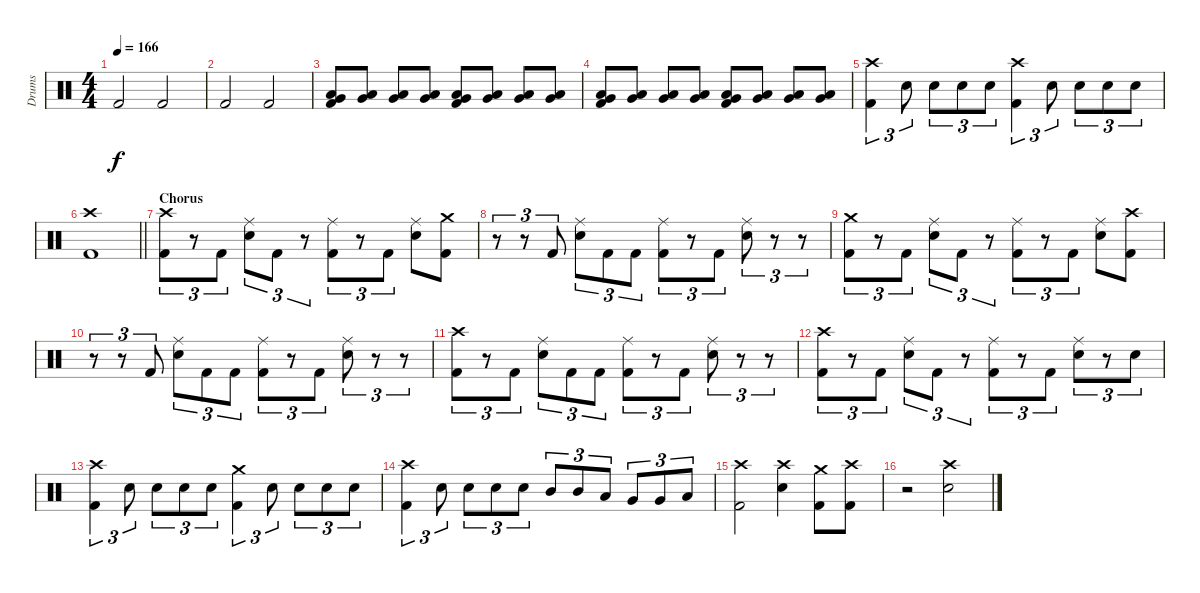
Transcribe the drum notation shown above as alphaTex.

\track ("Drums" "Drums") {instrument percussion}
\staff {score}
\articulation defaults
\ts (4 4)
\tempo 166
\clef neutral
\ks c "Kick (hit) 2".2{dy f} "Kick (hit) 2".2
|
"Kick (hit) 2".2 "Kick (hit) 2".2 |
("Low Floor Tom (hit)" "Very Low Tom (hit)" "Kick (hit) 2").8 ("Low Floor Tom (hit)" "Very Low Tom (hit)").8 ("Low Floor Tom (hit)" "Very Low Tom (hit)").8 ("Low Floor Tom (hit)" "Very Low Tom (hit)").8 ("Low Floor Tom (hit)" "Very Low Tom (hit)" "Kick (hit) 2").8 ("Low Floor Tom (hit)" "Very Low Tom (hit)").8 ("Low Floor Tom (hit)" "Very Low Tom (hit)").8 ("Low Floor Tom (hit)" "Very Low Tom (hit)").8 |
("Low Floor Tom (hit)" "Very Low Tom (hit)" "Kick (hit) 2").8 ("Low Floor Tom (hit)" "Very Low Tom (hit)").8 ("Low Floor Tom (hit)" "Very Low Tom (hit)").8 ("Low Floor Tom (hit)" "Very Low Tom (hit)").8 ("Low Floor Tom (hit)" "Very Low Tom (hit)" "Kick (hit) 2").8 ("Low Floor Tom (hit)" "Very Low Tom (hit)").8 ("Low Floor Tom (hit)" "Very Low Tom (hit)").8 ("Low Floor Tom (hit)" "Very Low Tom (hit)").8 |
("Crash high (hit)" "Kick (hit) 2").4{tu (3 2)} "Snare (hit) 2".8{tu (3 2)} "Snare (hit) 2".8{tu (3 2)} "Snare (hit) 2".8{tu (3 2)} "Snare (hit) 2".8{tu (3 2)} ("Crash high (hit)" "Kick (hit) 2").4{tu (3 2)} "Snare (hit) 2".8{tu (3 2)} "Snare (hit) 2".8{tu (3 2)} "Snare (hit) 2".8{tu (3 2)} "Snare (hit) 2".8{tu (3 2)} |
\barLineRight lightlight
("Crash high (hit)" "Kick (hit) 2").1 |
\section ("" "Chorus")
("Crash high (hit)" "Kick (hit) 2").8{tu (3 2)} r.8{tu (3 2)} "Kick (hit) 2".8{tu (3 2)} ("Ride (middle)" "Snare (hit) 2").8{tu (3 2)} "Kick (hit) 2".8{tu (3 2)} r.8{tu (3 2)} ("Ride (middle)" "Kick (hit) 2").8{tu (3 2)} r.8{tu (3 2)} "Kick (hit) 2".8{tu (3 2)} ("Ride (middle)" "Snare (hit) 2").8 ("Crash medium (hit)" "Kick (hit) 2").8 |
r.8{tu (3 2)} r.8{tu (3 2)} "Kick (hit) 2".8{tu (3 2)} ("Ride (middle)" "Snare (hit) 2").8{tu (3 2)} "Kick (hit) 2".8{tu (3 2)} "Kick (hit) 2".8{tu (3 2)} ("Ride (middle)" "Kick (hit) 2").8{tu (3 2)} r.8{tu (3 2)} "Kick (hit) 2".8{tu (3 2)} ("Ride (middle)" "Snare (hit) 2").8{tu (3 2)} r.8{tu (3 2)} r.8{tu (3 2)} |
("Crash medium (hit)" "Kick (hit) 2").8{tu (3 2)} r.8{tu (3 2)} "Kick (hit) 2".8{tu (3 2)} ("Ride (middle)" "Snare (hit) 2").8{tu (3 2)} "Kick (hit) 2".8{tu (3 2)} r.8{tu (3 2)} ("Ride (middle)" "Kick (hit) 2").8{tu (3 2)} r.8{tu (3 2)} "Kick (hit) 2".8{tu (3 2)} ("Ride (middle)" "Snare (hit) 2").8 ("Crash high (hit)" "Kick (hit) 2").8 |
r.8{tu (3 2)} r.8{tu (3 2)} "Kick (hit) 2".8{tu (3 2)} ("Ride (middle)" "Snare (hit) 2").8{tu (3 2)} "Kick (hit) 2".8{tu (3 2)} "Kick (hit) 2".8{tu (3 2)} ("Ride (middle)" "Kick (hit) 2").8{tu (3 2)} r.8{tu (3 2)} "Kick (hit) 2".8{tu (3 2)} ("Ride (middle)" "Snare (hit) 2").8{tu (3 2)} r.8{tu (3 2)} r.8{tu (3 2)} |
("Crash high (hit)" "Kick (hit) 2").8{tu (3 2)} r.8{tu (3 2)} "Kick (hit) 2".8{tu (3 2)} ("Ride (middle)" "Snare (hit) 2").8{tu (3 2)} "Kick (hit) 2".8{tu (3 2)} "Kick (hit) 2".8{tu (3 2)} ("Ride (middle)" "Kick (hit) 2").8{tu (3 2)} r.8{tu (3 2)} "Kick (hit) 2".8{tu (3 2)} ("Ride (middle)" "Snare (hit) 2").8{tu (3 2)} r.8{tu (3 2)} r.8{tu (3 2)} |
("Crash high (hit)" "Kick (hit) 2").8{tu (3 2)} r.8{tu (3 2)} "Kick (hit) 2".8{tu (3 2)} ("Ride (middle)" "Snare (hit) 2").8{tu (3 2)} "Kick (hit) 2".8{tu (3 2)} r.8{tu (3 2)} ("Ride (middle)" "Kick (hit) 2").8{tu (3 2)} r.8{tu (3 2)} "Kick (hit) 2".8{tu (3 2)} ("Ride (middle)" "Snare (hit) 2").8{tu (3 2)} r.8{tu (3 2)} "Snare (hit) 2".8{tu (3 2)} |
("Crash high (hit)" "Kick (hit) 2").4{tu (3 2)} "Snare (hit) 2".8{tu (3 2)} "Snare (hit) 2".8{tu (3 2)} "Snare (hit) 2".8{tu (3 2)} "Snare (hit) 2".8{tu (3 2)} ("Crash medium (hit)" "Kick (hit) 2").4{tu (3 2)} "Snare (hit) 2".8{tu (3 2)} "Snare (hit) 2".8{tu (3 2)} "Snare (hit) 2".8{tu (3 2)} "Snare (hit) 2".8{tu (3 2)} |
("Crash high (hit)" "Kick (hit) 2").4{tu (3 2)} "Snare (hit) 2".8{tu (3 2)} "Snare (hit) 2".8{tu (3 2)} "Snare (hit) 2".8{tu (3 2)} "Snare (hit) 2".8{tu (3 2)} "Mid Tom (hit)".8{tu (3 2)} "Mid Tom (hit)".8{tu (3 2)} "Low Tom (hit)".8{tu (3 2)} "Very Low Tom (hit)".8{tu (3 2)} "Very Low Tom (hit)".8{tu (3 2)} "Low Floor Tom (hit)".8{tu (3 2)} |
("Crash high (hit)" "Kick (hit) 2").2 ("Crash high (hit)" "Snare (hit) 2").4 ("Crash medium (hit)" "Kick (hit) 2").8 ("Crash high (hit)" "Kick (hit) 2").8 |
r.2 ("Crash high (hit)" "Snare (hit) 2").2
